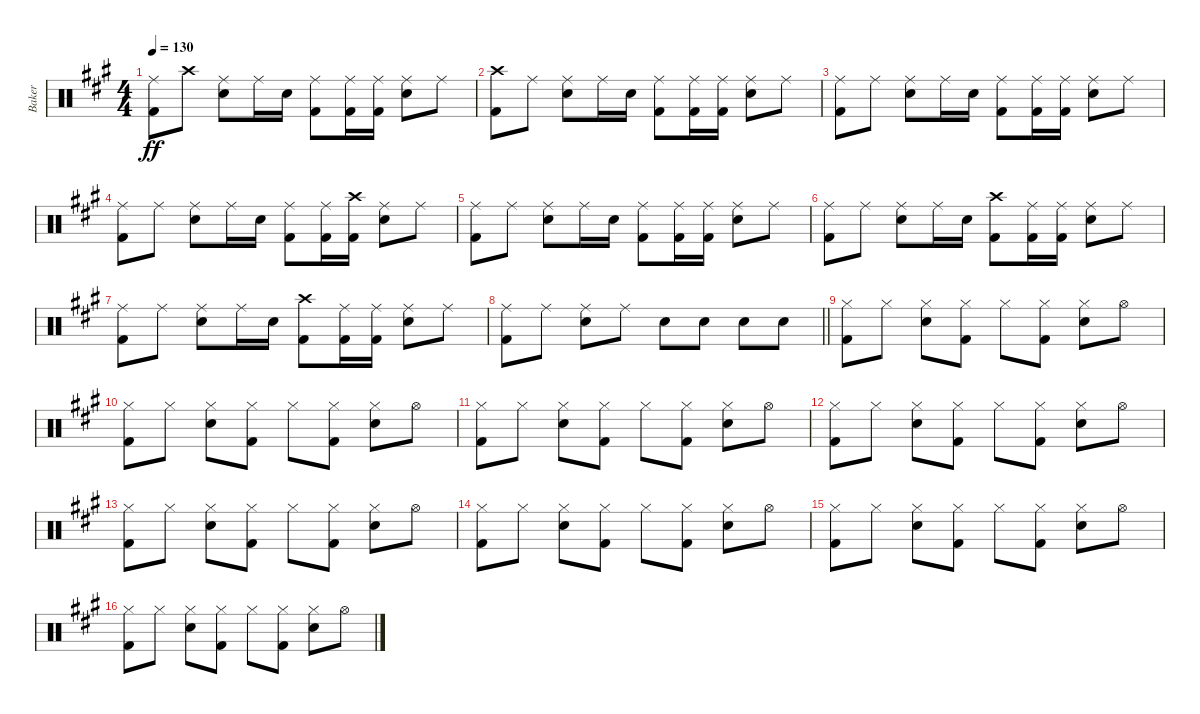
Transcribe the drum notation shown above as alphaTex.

\track ("Baker" "Baker") {instrument percussion}
\staff {score}
\articulation defaults
\ts (4 4)
\tempo 130
\clef neutral
\ks a
("Ride (middle)" "Kick (hit) 2").8{dy ff} "Crash high (hit)".8 ("Ride (middle)" "Snare (hit) 2").8 "Ride (middle)".16 "Snare (hit) 2".16 ("Ride (middle)" "Kick (hit) 2").8 ("Ride (middle)" "Kick (hit) 2").16 ("Ride (middle)" "Kick (hit) 2").16 ("Ride (middle)" "Snare (hit) 2").8 "Ride (middle)".8 |
("Crash high (hit)" "Kick (hit) 2").8 "Ride (middle)".8 ("Ride (middle)" "Snare (hit) 2").8 "Ride (middle)".16 "Snare (hit) 2".16 ("Ride (middle)" "Kick (hit) 2").8 ("Ride (middle)" "Kick (hit) 2").16 ("Ride (middle)" "Kick (hit) 2").16 ("Ride (middle)" "Snare (hit) 2").8 "Ride (middle)".8 |
("Ride (middle)" "Kick (hit) 2").8 "Ride (middle)".8 ("Ride (middle)" "Snare (hit) 2").8 "Ride (middle)".16 "Snare (hit) 2".16 ("Ride (middle)" "Kick (hit) 2").8 ("Ride (middle)" "Kick (hit) 2").16 ("Ride (middle)" "Kick (hit) 2").16 ("Ride (middle)" "Snare (hit) 2").8 "Ride (middle)".8 |
("Ride (middle)" "Kick (hit) 2").8 "Ride (middle)".8 ("Ride (middle)" "Snare (hit) 2").8 "Ride (middle)".16 "Snare (hit) 2".16 ("Ride (middle)" "Kick (hit) 2").8 ("Ride (middle)" "Kick (hit) 2").16 ("Crash high (hit)" "Kick (hit) 2").16 ("Ride (middle)" "Snare (hit) 2").8 "Ride (middle)".8 |
("Ride (middle)" "Kick (hit) 2").8 "Ride (middle)".8 ("Ride (middle)" "Snare (hit) 2").8 "Ride (middle)".16 "Snare (hit) 2".16 ("Ride (middle)" "Kick (hit) 2").8 ("Ride (middle)" "Kick (hit) 2").16 ("Ride (middle)" "Kick (hit) 2").16 ("Ride (middle)" "Snare (hit) 2").8 "Ride (middle)".8 |
("Ride (middle)" "Kick (hit) 2").8 "Ride (middle)".8 ("Ride (middle)" "Snare (hit) 2").8 "Ride (middle)".16 "Snare (hit) 2".16 ("Crash high (hit)" "Kick (hit) 2").8 ("Ride (middle)" "Kick (hit) 2").16 ("Ride (middle)" "Kick (hit) 2").16 ("Ride (middle)" "Snare (hit) 2").8 "Ride (middle)".8 |
("Ride (middle)" "Kick (hit) 2").8 "Ride (middle)".8 ("Ride (middle)" "Snare (hit) 2").8 "Ride (middle)".16 "Snare (hit) 2".16 ("Crash high (hit)" "Kick (hit) 2").8 ("Ride (middle)" "Kick (hit) 2").16 ("Ride (middle)" "Kick (hit) 2").16 ("Ride (middle)" "Snare (hit) 2").8 "Ride (middle)".8 |
\barLineRight lightlight
("Ride (middle)" "Kick (hit) 2").8 "Ride (middle)".8 ("Ride (middle)" "Snare (hit) 2").8 "Ride (middle)".8 "Snare (hit) 2".8 "Snare (hit) 2".8 "Snare (hit) 2".8 "Snare (hit) 2".8 |
("Hi-Hat (closed)" "Kick (hit) 2").8 "Hi-Hat (closed)".8 ("Hi-Hat (closed)" "Snare (hit) 2").8 ("Hi-Hat (closed)" "Kick (hit) 2").8 "Hi-Hat (closed)".8 ("Hi-Hat (closed)" "Kick (hit) 2").8 ("Hi-Hat (closed)" "Snare (hit) 2").8 "Hi-Hat (open)".8 |
("Hi-Hat (closed)" "Kick (hit) 2").8 "Hi-Hat (closed)".8 ("Hi-Hat (closed)" "Snare (hit) 2").8 ("Hi-Hat (closed)" "Kick (hit) 2").8 "Hi-Hat (closed)".8 ("Hi-Hat (closed)" "Kick (hit) 2").8 ("Hi-Hat (closed)" "Snare (hit) 2").8 "Hi-Hat (open)".8 |
("Hi-Hat (closed)" "Kick (hit) 2").8 "Hi-Hat (closed)".8 ("Hi-Hat (closed)" "Snare (hit) 2").8 ("Hi-Hat (closed)" "Kick (hit) 2").8 "Hi-Hat (closed)".8 ("Hi-Hat (closed)" "Kick (hit) 2").8 ("Hi-Hat (closed)" "Snare (hit) 2").8 "Hi-Hat (open)".8 |
("Hi-Hat (closed)" "Kick (hit) 2").8 "Hi-Hat (closed)".8 ("Hi-Hat (closed)" "Snare (hit) 2").8 ("Hi-Hat (closed)" "Kick (hit) 2").8 "Hi-Hat (closed)".8 ("Hi-Hat (closed)" "Kick (hit) 2").8 ("Hi-Hat (closed)" "Snare (hit) 2").8 "Hi-Hat (open)".8 |
("Hi-Hat (closed)" "Kick (hit) 2").8 "Hi-Hat (closed)".8 ("Hi-Hat (closed)" "Snare (hit) 2").8 ("Hi-Hat (closed)" "Kick (hit) 2").8 "Hi-Hat (closed)".8 ("Hi-Hat (closed)" "Kick (hit) 2").8 ("Hi-Hat (closed)" "Snare (hit) 2").8 "Hi-Hat (open)".8 |
("Hi-Hat (closed)" "Kick (hit) 2").8 "Hi-Hat (closed)".8 ("Hi-Hat (closed)" "Snare (hit) 2").8 ("Hi-Hat (closed)" "Kick (hit) 2").8 "Hi-Hat (closed)".8 ("Hi-Hat (closed)" "Kick (hit) 2").8 ("Hi-Hat (closed)" "Snare (hit) 2").8 "Hi-Hat (open)".8 |
("Hi-Hat (closed)" "Kick (hit) 2").8 "Hi-Hat (closed)".8 ("Hi-Hat (closed)" "Snare (hit) 2").8 ("Hi-Hat (closed)" "Kick (hit) 2").8 "Hi-Hat (closed)".8 ("Hi-Hat (closed)" "Kick (hit) 2").8 ("Hi-Hat (closed)" "Snare (hit) 2").8 "Hi-Hat (open)".8 |
("Hi-Hat (closed)" "Kick (hit) 2").8 "Hi-Hat (closed)".8 ("Hi-Hat (closed)" "Snare (hit) 2").8 ("Hi-Hat (closed)" "Kick (hit) 2").8 "Hi-Hat (closed)".8 ("Hi-Hat (closed)" "Kick (hit) 2").8 ("Hi-Hat (closed)" "Snare (hit) 2").8 "Hi-Hat (open)".8
